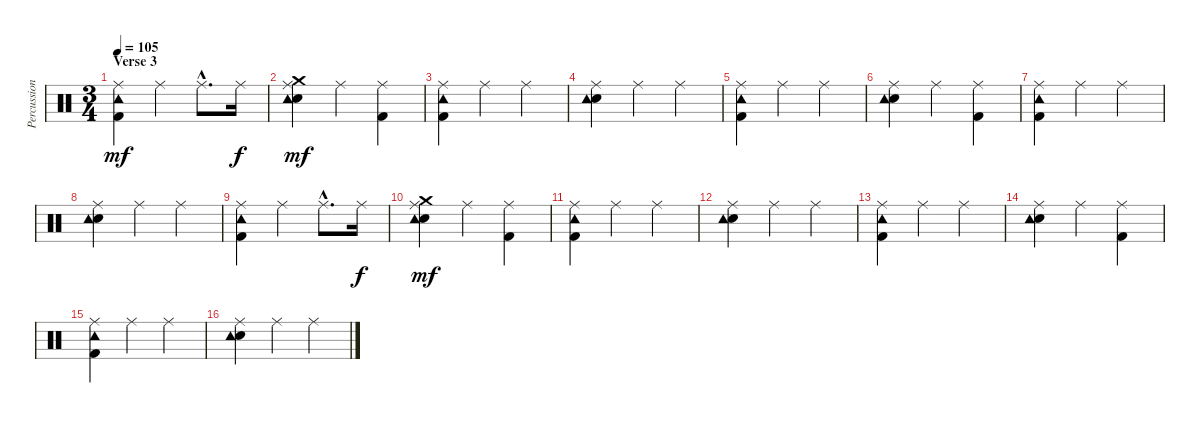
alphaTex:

\track ("Percussion" "Percussion") {instrument percussion}
\staff {score}
\articulation defaults
\ts (3 4)
\section ("" "Verse 3")
\tempo 105
\clef neutral
\ks c
("Kick (hit) 2" "Tambourine (hit)" "Ride (middle)").4{dy mf} "Ride (middle)".4 "Ride (middle)"{hac}.8{d} "Ride (middle)".16{dy f} |
("Snare (hit) 2" "Tambourine (hit)" "Crash medium (hit)" "Ride (middle)").4{dy mf} "Ride (middle)".4 ("Kick (hit) 2" "Ride (middle)").4 |
("Kick (hit) 2" "Tambourine (hit)" "Ride (middle)").4 "Ride (middle)".4 "Ride (middle)".4 |
("Snare (hit) 2" "Tambourine (hit)" "Ride (middle)").4 "Ride (middle)".4 "Ride (middle)".4 |
("Kick (hit) 2" "Tambourine (hit)" "Ride (middle)").4 "Ride (middle)".4 "Ride (middle)".4 |
("Snare (hit) 2" "Tambourine (hit)" "Ride (middle)").4 "Ride (middle)".4 ("Kick (hit) 2" "Ride (middle)").4 |
("Kick (hit) 2" "Tambourine (hit)" "Ride (middle)").4 "Ride (middle)".4 "Ride (middle)".4 |
("Snare (hit) 2" "Tambourine (hit)" "Ride (middle)").4 "Ride (middle)".4 "Ride (middle)".4 |
("Kick (hit) 2" "Tambourine (hit)" "Ride (middle)").4 "Ride (middle)".4 "Ride (middle)"{hac}.8{d} "Ride (middle)".16{dy f} |
("Snare (hit) 2" "Tambourine (hit)" "Crash medium (hit)" "Ride (middle)").4{dy mf} "Ride (middle)".4 ("Kick (hit) 2" "Ride (middle)").4 |
("Kick (hit) 2" "Tambourine (hit)" "Ride (middle)").4 "Ride (middle)".4 "Ride (middle)".4 |
("Snare (hit) 2" "Tambourine (hit)" "Ride (middle)").4 "Ride (middle)".4 "Ride (middle)".4 |
("Kick (hit) 2" "Tambourine (hit)" "Ride (middle)").4 "Ride (middle)".4 "Ride (middle)".4 |
("Snare (hit) 2" "Tambourine (hit)" "Ride (middle)").4 "Ride (middle)".4 ("Kick (hit) 2" "Ride (middle)").4 |
("Kick (hit) 2" "Tambourine (hit)" "Ride (middle)").4 "Ride (middle)".4 "Ride (middle)".4 |
("Snare (hit) 2" "Tambourine (hit)" "Ride (middle)").4 "Ride (middle)".4 "Ride (middle)".4
